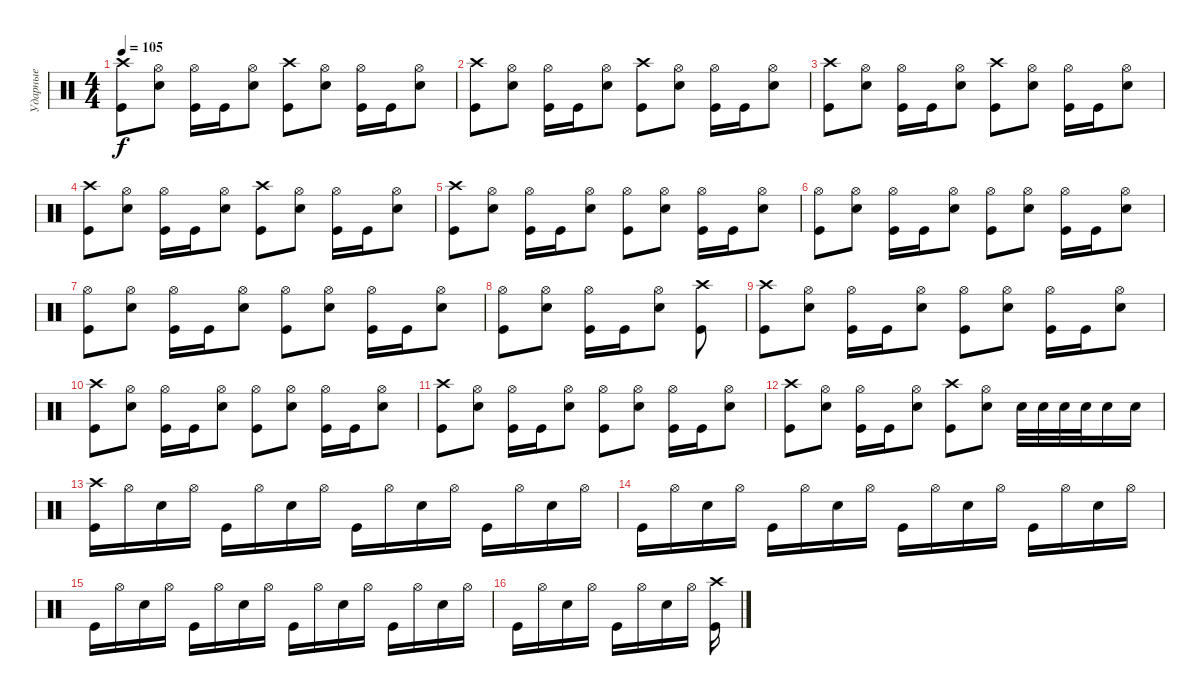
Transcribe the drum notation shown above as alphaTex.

\track ("Ударные" "Ударные") {instrument percussion}
\staff {score}
\articulation defaults
\ts (4 4)
\tempo 105
\clef neutral
\ks c
("Kick (hit)" "Crash high (hit)").8{dy f} ("Snare (hit) 2" "Hi-Hat (open)").8 ("Kick (hit)" "Hi-Hat (open)").16 "Kick (hit)".16 ("Snare (hit) 2" "Hi-Hat (open)").8 ("Kick (hit)" "Crash high (hit)").8 ("Snare (hit) 2" "Hi-Hat (open)").8 ("Kick (hit)" "Hi-Hat (open)").16 "Kick (hit)".16 ("Snare (hit) 2" "Hi-Hat (open)").8 |
("Kick (hit)" "Crash high (hit)").8 ("Snare (hit) 2" "Hi-Hat (open)").8 ("Kick (hit)" "Hi-Hat (open)").16 "Kick (hit)".16 ("Snare (hit) 2" "Hi-Hat (open)").8 ("Kick (hit)" "Crash high (hit)").8 ("Snare (hit) 2" "Hi-Hat (open)").8 ("Kick (hit)" "Hi-Hat (open)").16 "Kick (hit)".16 ("Snare (hit) 2" "Hi-Hat (open)").8 |
("Kick (hit)" "Crash high (hit)").8 ("Snare (hit) 2" "Hi-Hat (open)").8 ("Kick (hit)" "Hi-Hat (open)").16 "Kick (hit)".16 ("Snare (hit) 2" "Hi-Hat (open)").8 ("Kick (hit)" "Crash high (hit)").8 ("Snare (hit) 2" "Hi-Hat (open)").8 ("Kick (hit)" "Hi-Hat (open)").16 "Kick (hit)".16 ("Snare (hit) 2" "Hi-Hat (open)").8 |
("Kick (hit)" "Crash high (hit)").8 ("Snare (hit) 2" "Hi-Hat (open)").8 ("Kick (hit)" "Hi-Hat (open)").16 "Kick (hit)".16 ("Snare (hit) 2" "Hi-Hat (open)").8 ("Kick (hit)" "Crash high (hit)").8 ("Snare (hit) 2" "Hi-Hat (open)").8 ("Kick (hit)" "Hi-Hat (open)").16 "Kick (hit)".16 ("Snare (hit) 2" "Hi-Hat (open)").8 |
("Kick (hit)" "Crash high (hit)").8 ("Snare (hit) 2" "Hi-Hat (open)").8 ("Kick (hit)" "Hi-Hat (open)").16 "Kick (hit)".16 ("Snare (hit) 2" "Hi-Hat (open)").8 ("Kick (hit)" "Hi-Hat (open)").8 ("Snare (hit) 2" "Hi-Hat (open)").8 ("Kick (hit)" "Hi-Hat (open)").16 "Kick (hit)".16 ("Snare (hit) 2" "Hi-Hat (open)").8 |
("Kick (hit)" "Hi-Hat (open)").8 ("Snare (hit) 2" "Hi-Hat (open)").8 ("Kick (hit)" "Hi-Hat (open)").16 "Kick (hit)".16 ("Snare (hit) 2" "Hi-Hat (open)").8 ("Kick (hit)" "Hi-Hat (open)").8 ("Snare (hit) 2" "Hi-Hat (open)").8 ("Kick (hit)" "Hi-Hat (open)").16 "Kick (hit)".16 ("Snare (hit) 2" "Hi-Hat (open)").8 |
("Kick (hit)" "Hi-Hat (open)").8 ("Snare (hit) 2" "Hi-Hat (open)").8 ("Kick (hit)" "Hi-Hat (open)").16 "Kick (hit)".16 ("Snare (hit) 2" "Hi-Hat (open)").8 ("Kick (hit)" "Hi-Hat (open)").8 ("Snare (hit) 2" "Hi-Hat (open)").8 ("Kick (hit)" "Hi-Hat (open)").16 "Kick (hit)".16 ("Snare (hit) 2" "Hi-Hat (open)").8 |
("Kick (hit)" "Hi-Hat (open)").8 ("Snare (hit) 2" "Hi-Hat (open)").8 ("Kick (hit)" "Hi-Hat (open)").16 "Kick (hit)".16 ("Snare (hit) 2" "Hi-Hat (open)").8 ("Kick (hit)" "Crash high (hit)").8 |
("Kick (hit)" "Crash high (hit)").8 ("Snare (hit) 2" "Hi-Hat (open)").8 ("Kick (hit)" "Hi-Hat (open)").16 "Kick (hit)".16 ("Snare (hit) 2" "Hi-Hat (open)").8 ("Kick (hit)" "Hi-Hat (open)").8 ("Snare (hit) 2" "Hi-Hat (open)").8 ("Kick (hit)" "Hi-Hat (open)").16 "Kick (hit)".16 ("Snare (hit) 2" "Hi-Hat (open)").8 |
("Kick (hit)" "Crash high (hit)").8 ("Snare (hit) 2" "Hi-Hat (open)").8 ("Kick (hit)" "Hi-Hat (open)").16 "Kick (hit)".16 ("Snare (hit) 2" "Hi-Hat (open)").8 ("Kick (hit)" "Hi-Hat (open)").8 ("Snare (hit) 2" "Hi-Hat (open)").8 ("Kick (hit)" "Hi-Hat (open)").16 "Kick (hit)".16 ("Snare (hit) 2" "Hi-Hat (open)").8 |
("Kick (hit)" "Crash high (hit)").8 ("Snare (hit) 2" "Hi-Hat (open)").8 ("Kick (hit)" "Hi-Hat (open)").16 "Kick (hit)".16 ("Snare (hit) 2" "Hi-Hat (open)").8 ("Kick (hit)" "Hi-Hat (open)").8 ("Snare (hit) 2" "Hi-Hat (open)").8 ("Kick (hit)" "Hi-Hat (open)").16 "Kick (hit)".16 ("Snare (hit) 2" "Hi-Hat (open)").8 |
("Kick (hit)" "Crash high (hit)").8 ("Snare (hit) 2" "Hi-Hat (open)").8 ("Kick (hit)" "Hi-Hat (open)").16 "Kick (hit)".16 ("Snare (hit) 2" "Hi-Hat (open)").8 ("Kick (hit)" "Crash high (hit)").8 ("Snare (hit) 2" "Hi-Hat (open)").8 "Snare (hit) 2".32 "Snare (hit) 2".32 "Snare (hit) 2".32 "Snare (hit) 2".32 "Snare (hit) 2".16 "Snare (hit) 2".16 |
("Kick (hit)" "Crash high (hit)").16 "Hi-Hat (open)".16 "Snare (hit) 2".16 "Hi-Hat (open)".16 "Kick (hit)".16 "Hi-Hat (open)".16 "Snare (hit) 2".16 "Hi-Hat (open)".16 "Kick (hit)".16 "Hi-Hat (open)".16 "Snare (hit) 2".16 "Hi-Hat (open)".16 "Kick (hit)".16 "Hi-Hat (open)".16 "Snare (hit) 2".16 "Hi-Hat (open)".16 |
"Kick (hit)".16 "Hi-Hat (open)".16 "Snare (hit) 2".16 "Hi-Hat (open)".16 "Kick (hit)".16 "Hi-Hat (open)".16 "Snare (hit) 2".16 "Hi-Hat (open)".16 "Kick (hit)".16 "Hi-Hat (open)".16 "Snare (hit) 2".16 "Hi-Hat (open)".16 "Kick (hit)".16 "Hi-Hat (open)".16 "Snare (hit) 2".16 "Hi-Hat (open)".16 |
"Kick (hit)".16 "Hi-Hat (open)".16 "Snare (hit) 2".16 "Hi-Hat (open)".16 "Kick (hit)".16 "Hi-Hat (open)".16 "Snare (hit) 2".16 "Hi-Hat (open)".16 "Kick (hit)".16 "Hi-Hat (open)".16 "Snare (hit) 2".16 "Hi-Hat (open)".16 "Kick (hit)".16 "Hi-Hat (open)".16 "Snare (hit) 2".16 "Hi-Hat (open)".16 |
"Kick (hit)".16 "Hi-Hat (open)".16 "Snare (hit) 2".16 "Hi-Hat (open)".16 "Kick (hit)".16 "Hi-Hat (open)".16 "Snare (hit) 2".16 "Hi-Hat (open)".16 ("Kick (hit)" "Crash high (hit)").16
